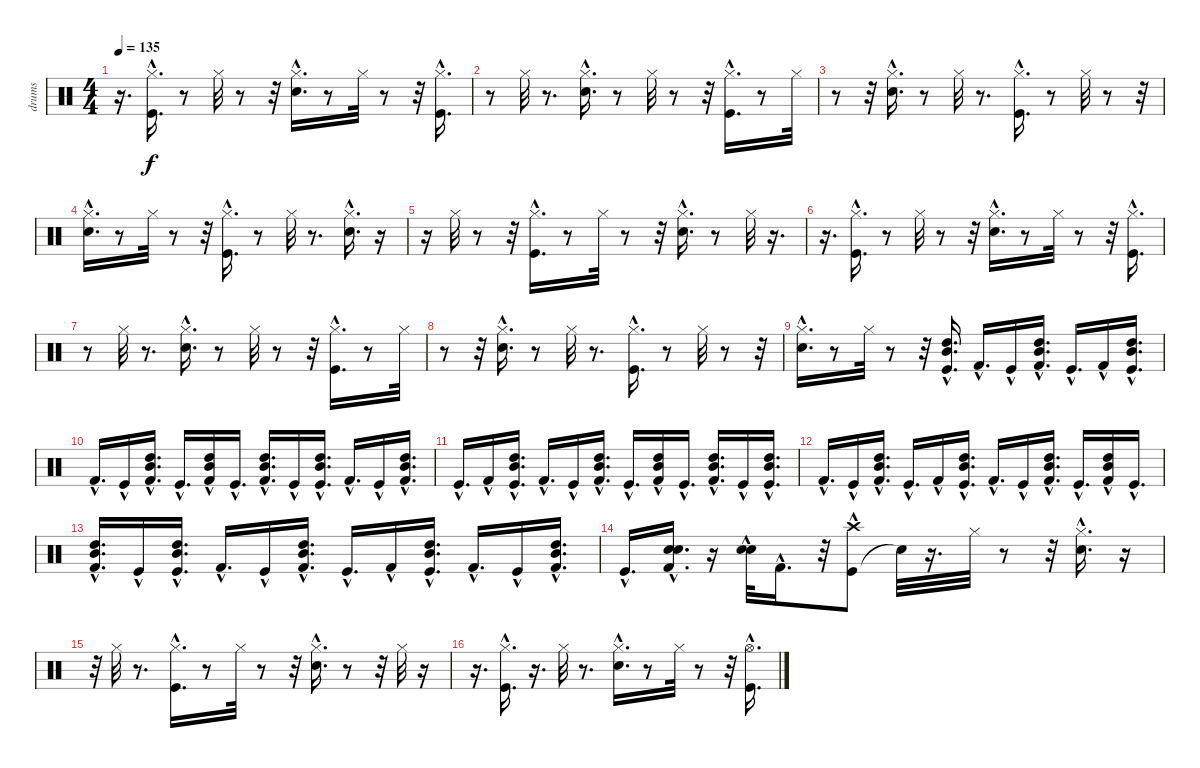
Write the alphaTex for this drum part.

\track ("drums" "drums") {instrument percussion}
\staff {score}
\articulation defaults
\ts (4 4)
\tempo 135
\clef neutral
\ks c
r.16{d dy f} ("Kick (hit)"{hac} "Hi-Hat (closed)").16{d} r.8 "Hi-Hat (closed)".32 r.8 r.32 ("Snare (hit) 2"{hac} "Hi-Hat (closed)").16{d} r.8 "Hi-Hat (closed)".32 r.8 r.32 ("Hi-Hat (closed)" "Kick (hit)"{hac}).16{d} |
r.8 "Hi-Hat (closed)".32 r.8{d} ("Snare (hit) 2"{hac} "Hi-Hat (closed)").16{d} r.8 "Hi-Hat (closed)".32 r.8 r.32 ("Kick (hit)"{hac} "Hi-Hat (closed)").16{d} r.8 "Hi-Hat (closed)".32 |
r.8 r.32 ("Hi-Hat (closed)" "Snare (hit) 2"{hac}).16{d} r.8 "Hi-Hat (closed)".32 r.8{d} ("Kick (hit)"{hac} "Hi-Hat (closed)").16{d} r.8 "Hi-Hat (closed)".32 r.8 r.32 |
("Snare (hit) 2"{hac} "Hi-Hat (closed)").16{d} r.8 "Hi-Hat (closed)".32 r.8 r.32 ("Hi-Hat (closed)" "Kick (hit)"{hac}).16{d} r.8 "Hi-Hat (closed)".32 r.8{d} ("Snare (hit) 2"{hac} "Hi-Hat (closed)").16{d} r.16 |
r.16 "Hi-Hat (closed)".32 r.8 r.32 ("Kick (hit)"{hac} "Hi-Hat (closed)").16{d} r.8 "Hi-Hat (closed)".32 r.8 r.32 ("Hi-Hat (closed)" "Snare (hit) 2"{hac}).16{d} r.8 "Hi-Hat (closed)".32 r.16{d} |
r.16{d} ("Kick (hit)"{hac} "Hi-Hat (closed)").16{d} r.8 "Hi-Hat (closed)".32 r.8 r.32 ("Snare (hit) 2"{hac} "Hi-Hat (closed)").16{d} r.8 "Hi-Hat (closed)".32 r.8 r.32 ("Hi-Hat (closed)" "Kick (hit)"{hac}).16{d} |
r.8 "Hi-Hat (closed)".32 r.8{d} ("Hi-Hat (closed)" "Snare (hit) 2"{hac}).16{d} r.8 "Hi-Hat (closed)".32 r.8 r.32 ("Kick (hit)"{hac} "Hi-Hat (closed)").16{d} r.8 "Hi-Hat (closed)".32 |
r.8 r.32 ("Hi-Hat (closed)" "Snare (hit) 2"{hac}).16{d} r.8 "Hi-Hat (closed)".32 r.8{d} ("Kick (hit)"{hac} "Hi-Hat (closed)").16{d} r.8 "Hi-Hat (closed)".32 r.8 r.32 |
("Snare (hit) 2"{hac} "Hi-Hat (closed)").16{d} r.8 "Hi-Hat (closed)".32 r.8 r.32 ("High Tom (hit)"{hac} "Mid Tom (hit)"{hac} "Kick (hit)"{hac}).16{d} "Kick (hit) 2"{hac}.16{d} "Kick (hit)"{hac}.16 ("High Tom (hit)"{hac} "Mid Tom (hit)"{hac} "Kick (hit) 2"{hac}).16{d} "Kick (hit)"{hac}.16{d} "Kick (hit) 2"{hac}.16 ("High Tom (hit)"{hac} "Mid Tom (hit)"{hac} "Kick (hit)"{hac}).16{d} |
"Kick (hit) 2"{hac}.16{d} "Kick (hit)"{hac}.16 ("Mid Tom (hit)"{hac} "High Tom (hit)"{hac} "Kick (hit) 2"{hac}).16{d} "Kick (hit)"{hac}.16{d} ("Mid Tom (hit)"{hac} "Kick (hit) 2"{hac} "High Tom (hit)"{hac}).16 "Kick (hit)"{hac}.16{d} ("High Tom (hit)"{hac} "Mid Tom (hit)"{hac} "Kick (hit) 2"{hac}).16{d} "Kick (hit)"{hac}.16 ("High Tom (hit)"{hac} "Mid Tom (hit)"{hac} "Kick (hit)"{hac}).16{d} "Kick (hit) 2"{hac}.16{d} "Kick (hit)"{hac}.16 ("High Tom (hit)"{hac} "Mid Tom (hit)"{hac} "Kick (hit) 2"{hac}).16{d} |
"Kick (hit)"{hac}.16{d} "Kick (hit) 2"{hac}.16 ("High Tom (hit)"{hac} "Mid Tom (hit)"{hac} "Kick (hit)"{hac}).16{d} "Kick (hit) 2"{hac}.16{d} "Kick (hit)"{hac}.16 ("Mid Tom (hit)"{hac} "High Tom (hit)"{hac} "Kick (hit) 2"{hac}).16{d} "Kick (hit)"{hac}.16{d} ("Mid Tom (hit)"{hac} "Kick (hit) 2"{hac} "High Tom (hit)"{hac}).16 "Kick (hit)"{hac}.16{d} ("Kick (hit) 2"{hac} "High Tom (hit)"{hac} "Mid Tom (hit)"{hac}).16{d} "Kick (hit)"{hac}.16 ("High Tom (hit)"{hac} "Mid Tom (hit)"{hac} "Kick (hit)"{hac}).16{d} |
"Kick (hit) 2"{hac}.16{d} "Kick (hit)"{hac}.16 ("High Tom (hit)"{hac} "Mid Tom (hit)"{hac} "Kick (hit) 2"{hac}).16{d} "Kick (hit)"{hac}.16{d} "Kick (hit) 2"{hac}.16 ("High Tom (hit)"{hac} "Mid Tom (hit)"{hac} "Kick (hit)"{hac}).16{d} "Kick (hit) 2"{hac}.16{d} "Kick (hit)"{hac}.16 ("Mid Tom (hit)"{hac} "High Tom (hit)"{hac} "Kick (hit) 2"{hac}).16{d} "Kick (hit)"{hac}.16{d} ("Mid Tom (hit)"{hac} "Kick (hit) 2"{hac} "High Tom (hit)"{hac}).16 "Kick (hit)"{hac}.16{d} |
("Kick (hit) 2"{hac} "High Tom (hit)"{hac} "Mid Tom (hit)"{hac}).16{d} "Kick (hit)"{hac}.16 ("High Tom (hit)"{hac} "Mid Tom (hit)"{hac} "Kick (hit)"{hac}).16{d} "Kick (hit) 2"{hac}.16{d} "Kick (hit)"{hac}.16 ("High Tom (hit)"{hac} "Mid Tom (hit)"{hac} "Kick (hit) 2"{hac}).16{d} "Kick (hit)"{hac}.16{d} "Kick (hit) 2"{hac}.16 ("High Tom (hit)"{hac} "Mid Tom (hit)"{hac} "Kick (hit)"{hac}).16{d} "Kick (hit) 2"{hac}.16{d} "Kick (hit)"{hac}.16 ("Mid Tom (hit)"{hac} "High Tom (hit)"{hac} "Kick (hit) 2"{hac}).16{d} |
"Kick (hit)"{hac}.16{d} ("Snare (hit) 2"{hac} "Kick (hit) 2"{hac} "Snare (hit) 2"{hac}).16{d} r.16 ("Snare (hit) 2"{hac} "Snare (hit) 2"{hac}).32 "Kick (hit) 2"{hac}.16{d} r.32 ("Kick (hit)"{hac} "Crash high (hit)").8 "Snare (hit)"{t}.32 r.16{d} "Hi-Hat (closed)".32 r.8 r.32 ("Snare (hit) 2"{hac} "Hi-Hat (closed)").16{d} r.16 |
r.32 "Hi-Hat (closed)".32 r.8{d} ("Hi-Hat (closed)" "Kick (hit)"{hac}).16{d} r.8 "Hi-Hat (closed)".32 r.8 r.32 ("Snare (hit) 2"{hac} "Hi-Hat (closed)").16{d} r.8 r.32 "Hi-Hat (closed)".32 r.16 |
r.16{d} ("Kick (hit)"{hac} "Hi-Hat (closed)").16{d} r.16{d} "Hi-Hat (closed)".32 r.8{d} ("Hi-Hat (closed)" "Snare (hit) 2"{hac}).16{d} r.8 "Hi-Hat (closed)".32 r.8 r.32 ("Kick (hit)"{hac} "Hi-Hat (open)"{hac}).16{d}
